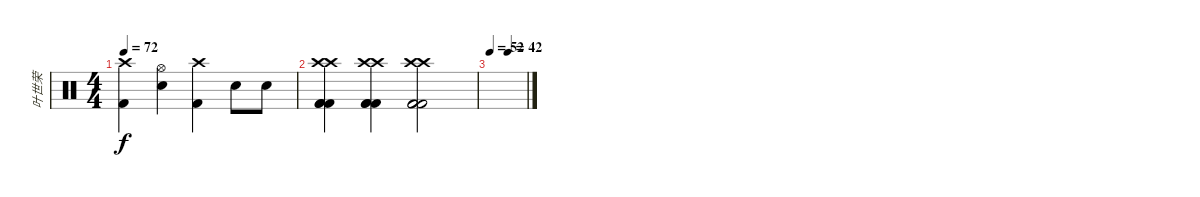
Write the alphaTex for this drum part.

\track ("叶世荣" "叶世荣") {instrument percussion}
\staff {score}
\articulation defaults
\ts (4 4)
\tempo 72
\clef neutral
\ks c
("Crash high (hit)" "Kick (hit) 2").4{dy f} ("Hi-Hat (open)" "Electric Snare (hit)").4 ("Crash high (hit)" "Kick (hit) 2").4 "Electric Snare (hit)".8 "Electric Snare (hit)".8 |
("Kick (hit) 2" "Crash high (hit)" "Crash high (hit)" "Kick (hit) 2" "Kick (hit) 2").4 ("Kick (hit) 2" "Crash high (hit)" "Crash high (hit)" "Kick (hit) 2" "Kick (hit) 2").4 ("Kick (hit) 2" "Crash high (hit)" "Crash high (hit)" "Kick (hit) 2" "Kick (hit) 2").2 |
\tempo 52
\tempo (42 0.5)
